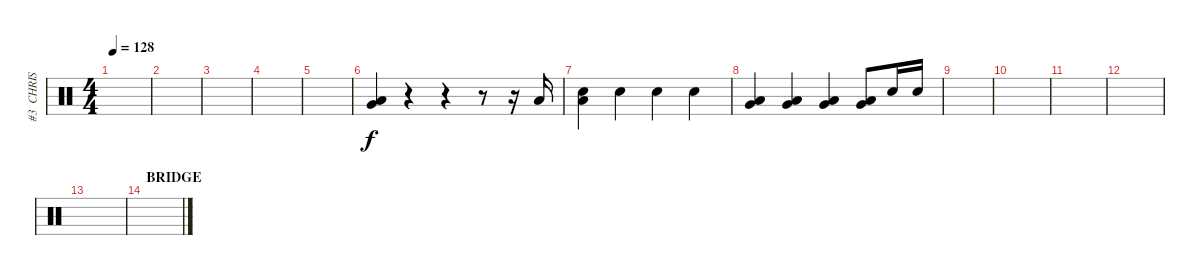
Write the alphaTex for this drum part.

\track ("#3  CHRIS FEHN" "#3  CHRIS ") {instrument percussion}
\staff {score}
\articulation defaults
\ts (4 4)
\tempo 128
\clef neutral
\ks c
|
|
|
|
|
\section ("" "")
("Very Low Tom (hit)" "Low Floor Tom (hit)").4 r.4 r.4 r.8 r.16 "Low Tom (hit)".16 |
("Low Floor Tom (hit)" "Snare (hit)"{x}).4 "Snare (hit)"{x}.4 "Snare (hit)"{x}.4 "Snare (hit)"{x}.4 |
("Very Low Tom (hit)" "Low Floor Tom (hit)").4 ("Very Low Tom (hit)" "Low Floor Tom (hit)").4 ("Very Low Tom (hit)" "Low Floor Tom (hit)").4 ("Very Low Tom (hit)" "Low Floor Tom (hit)").8 "Snare (hit)"{x}.16 "Snare (hit)"{x}.16 |
|
|
|
|
|
\section ("" "BRIDGE")
